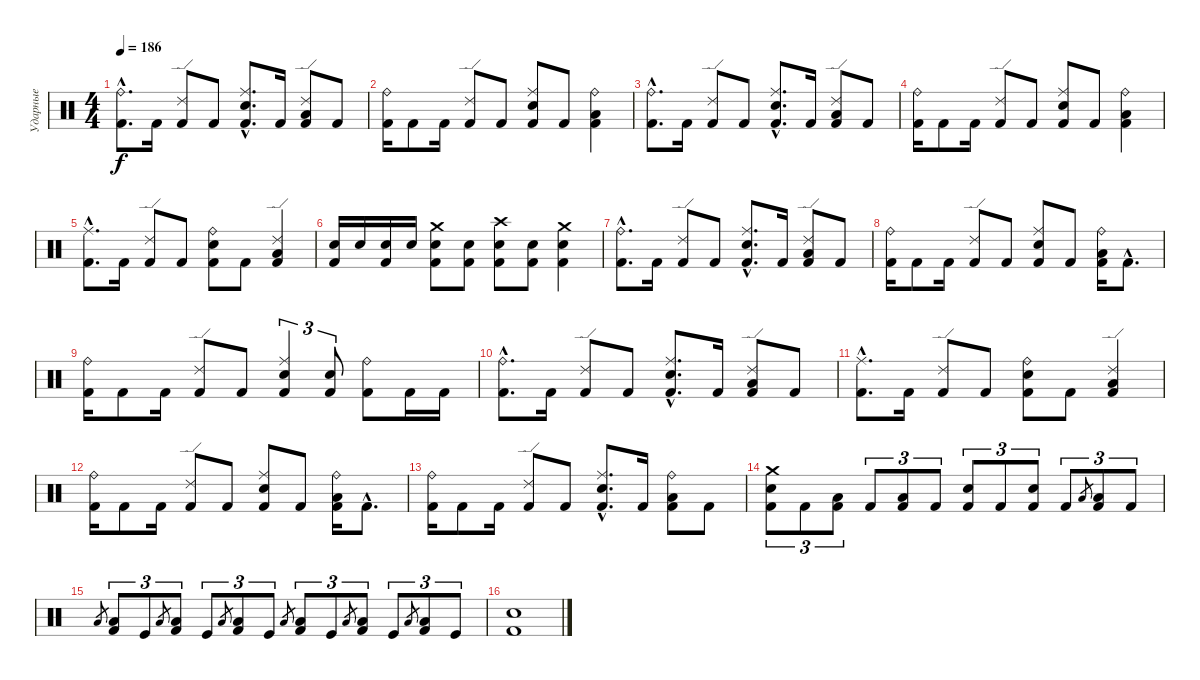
\track ("Ударные" "Ударные") {instrument percussion}
\staff {score}
\articulation defaults
\ts (4 4)
\tempo 186
\clef neutral
\ks c
("Ride (bell)"{hac} "Kick (hit) 2"{hac}).8{d dy f} "Kick (hit) 2".16 ("Ride (edge) 2" "Kick (hit) 2").8 "Kick (hit) 2".8 ("Ride (middle)"{hac} "Snare (hit) 2"{hac} "Kick (hit) 2"{hac}).8{d} "Kick (hit) 2".16 ("Ride (edge) 2" "Low Tom (hit)" "Kick (hit) 2").8 "Kick (hit) 2".8 |
("Ride (bell)" "Kick (hit) 2").16 "Kick (hit) 2".8 "Kick (hit) 2".16 ("Ride (edge) 2" "Kick (hit) 2").8 "Kick (hit) 2".8 ("Ride (middle)" "Snare (hit) 2" "Kick (hit) 2").8 "Kick (hit) 2".8 ("Ride (bell)" "Low Tom (hit)" "Kick (hit) 2").4 |
("Ride (bell)"{hac} "Kick (hit) 2"{hac}).8{d} "Kick (hit) 2".16 ("Ride (edge) 2" "Kick (hit) 2").8 "Kick (hit) 2".8 ("Ride (middle)"{hac} "Snare (hit) 2"{hac} "Kick (hit) 2"{hac}).8{d} "Kick (hit) 2".16 ("Ride (edge) 2" "Low Tom (hit)" "Kick (hit) 2").8 "Kick (hit) 2".8 |
("Ride (bell)" "Kick (hit) 2").16 "Kick (hit) 2".8 "Kick (hit) 2".16 ("Ride (edge) 2" "Kick (hit) 2").8 "Kick (hit) 2".8 ("Ride (middle)" "Snare (hit) 2" "Kick (hit) 2").8 "Kick (hit) 2".8 ("Ride (bell)" "Low Tom (hit)" "Kick (hit) 2").4 |
("Ride (middle)"{hac} "Kick (hit) 2"{hac}).8{d} "Kick (hit) 2".16 ("Ride (edge) 2" "Kick (hit) 2").8 "Kick (hit) 2".8 ("Ride (bell)" "Snare (hit) 2" "Kick (hit) 2").8 "Kick (hit) 2".8 ("Ride (edge) 2" "Low Tom (hit)" "Kick (hit) 2").4 |
("Snare (hit) 2" "Kick (hit) 2").16 "Snare (hit) 2".16 ("Snare (hit) 2" "Kick (hit) 2").16 "Snare (hit) 2".16 ("Crash medium (hit)" "Snare (hit) 2" "Kick (hit) 2").8 ("Snare (hit) 2" "Kick (hit) 2").8 ("Crash high (hit)" "Snare (hit) 2" "Kick (hit) 2").8 ("Snare (hit) 2" "Kick (hit) 2").8 ("Crash medium (hit)" "Snare (hit) 2" "Kick (hit) 2").4 |
("Ride (bell)"{hac} "Kick (hit) 2"{hac}).8{d} "Kick (hit) 2".16 ("Ride (edge) 2" "Kick (hit) 2").8 "Kick (hit) 2".8 ("Ride (middle)"{hac} "Snare (hit) 2"{hac} "Kick (hit) 2"{hac}).8{d} "Kick (hit) 2".16 ("Ride (edge) 2" "Low Tom (hit)" "Kick (hit) 2").8 "Kick (hit) 2".8 |
("Ride (bell)" "Kick (hit) 2").16 "Kick (hit) 2".8 "Kick (hit) 2".16 ("Ride (edge) 2" "Kick (hit) 2").8 "Kick (hit) 2".8 ("Ride (middle)" "Snare (hit) 2" "Kick (hit) 2").8 "Kick (hit) 2".8 ("Ride (bell)" "Low Tom (hit)" "Kick (hit) 2").16 "Kick (hit) 2"{hac}.8{d} |
("Ride (bell)" "Kick (hit) 2").16 "Kick (hit) 2".8 "Kick (hit) 2".16 ("Ride (edge) 2" "Kick (hit) 2").8 "Kick (hit) 2".8 ("Ride (middle)" "Snare (hit) 2" "Kick (hit) 2").4{tu (3 2)} ("Snare (hit) 2" "Kick (hit) 2").8{tu (3 2)} ("Ride (bell)" "Kick (hit) 2").8 "Kick (hit) 2".16 "Kick (hit) 2".16 |
("Ride (bell)"{hac} "Kick (hit) 2"{hac}).8{d} "Kick (hit) 2".16 ("Ride (edge) 2" "Kick (hit) 2").8 "Kick (hit) 2".8 ("Ride (middle)"{hac} "Snare (hit) 2"{hac} "Kick (hit) 2"{hac}).8{d} "Kick (hit) 2".16 ("Ride (edge) 2" "Low Tom (hit)" "Kick (hit) 2").8 "Kick (hit) 2".8 |
("Ride (middle)"{hac} "Kick (hit) 2"{hac}).8{d} "Kick (hit) 2".16 ("Ride (edge) 2" "Kick (hit) 2").8 "Kick (hit) 2".8 ("Ride (bell)" "Snare (hit) 2" "Kick (hit) 2").8 "Kick (hit) 2".8 ("Ride (edge) 2" "Low Tom (hit)" "Kick (hit) 2").4 |
("Ride (bell)" "Kick (hit) 2").16 "Kick (hit) 2".8 "Kick (hit) 2".16 ("Ride (edge) 2" "Kick (hit) 2").8 "Kick (hit) 2".8 ("Ride (middle)" "Snare (hit) 2" "Kick (hit) 2").8 "Kick (hit) 2".8 ("Ride (bell)" "Low Tom (hit)" "Kick (hit) 2").16 "Kick (hit) 2"{hac}.8{d} |
("Ride (bell)" "Kick (hit) 2").16 "Kick (hit) 2".8 "Kick (hit) 2".16 ("Ride (edge) 2" "Kick (hit) 2").8 "Kick (hit) 2".8 ("Ride (middle)"{hac} "Snare (hit) 2"{hac} "Kick (hit) 2"{hac}).8{d} "Kick (hit) 2".16 ("Ride (bell)" "Low Tom (hit)" "Kick (hit) 2").8 "Kick (hit) 2".8 |
("Crash medium (hit)" "Snare (hit) 2" "Kick (hit) 2").8{tu (3 2)} "Kick (hit) 2".8{tu (3 2)} ("Low Tom (hit)" "Kick (hit) 2").8{tu (3 2)} "Kick (hit) 2".8{tu (3 2)} ("Low Tom (hit)" "Kick (hit) 2").8{tu (3 2)} "Kick (hit) 2".8{tu (3 2)} ("Snare (hit) 2" "Kick (hit) 2").8{tu (3 2)} "Kick (hit) 2".8{tu (3 2)} ("Snare (hit) 2" "Kick (hit) 2").8{tu (3 2)} "Kick (hit) 2".8{tu (3 2)} "Low Tom (hit)".8{gr} ("Low Tom (hit)" "Kick (hit) 2").8{tu (3 2)} "Kick (hit) 2".8{tu (3 2)} |
"Low Tom (hit)".8{gr} ("Low Tom (hit)" "Kick (hit) 2").8{tu (3 2)} "Kick (hit)".8{tu (3 2)} "Low Tom (hit)".8{gr} ("Low Tom (hit)" "Kick (hit) 2").8{tu (3 2)} "Kick (hit)".8{tu (3 2)} "Low Tom (hit)".8{gr} ("Low Tom (hit)" "Kick (hit) 2").8{tu (3 2)} "Kick (hit)".8{tu (3 2)} "Low Tom (hit)".8{gr} ("Low Tom (hit)" "Kick (hit) 2").8{tu (3 2)} "Kick (hit)".8{tu (3 2)} "Low Tom (hit)".8{gr} ("Low Tom (hit)" "Kick (hit) 2").8{tu (3 2)} "Kick (hit)".8{tu (3 2)} "Low Tom (hit)".8{gr} ("Low Tom (hit)" "Kick (hit) 2").8{tu (3 2)} "Kick (hit)".8{tu (3 2)} |
("Snare (hit) 2" "Kick (hit) 2").1
